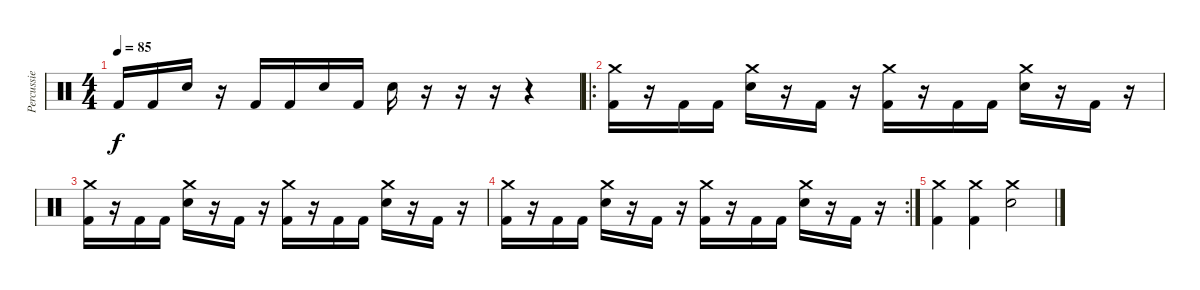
\track ("Percussie" "Percussie") {instrument percussion}
\staff {score}
\articulation defaults
\ts (4 4)
\tempo 85
\clef neutral
\ks c "Kick (hit) 2".16{dy f} "Kick (hit) 2".16 "Snare (hit) 2".16
r.16 "Kick (hit) 2".16 "Kick (hit) 2".16 "Snare (hit) 2".16 "Kick (hit) 2".16 "Snare (hit) 2".16 r.16 r.16 r.16 r.4 |
\ro
("Kick (hit) 2" "Crash medium (hit)").16 r.16 "Kick (hit) 2".16 "Kick (hit) 2".16 ("Snare (hit) 2" "Crash medium (hit)").16 r.16 "Kick (hit) 2".16 r.16 ("Kick (hit) 2" "Crash medium (hit)").16 r.16 "Kick (hit) 2".16 "Kick (hit) 2".16 ("Snare (hit) 2" "Crash medium (hit)").16 r.16 "Kick (hit) 2".16 r.16 |
("Kick (hit) 2" "Crash medium (hit)").16 r.16 "Kick (hit) 2".16 "Kick (hit) 2".16 ("Snare (hit) 2" "Crash medium (hit)").16 r.16 "Kick (hit) 2".16 r.16 ("Kick (hit) 2" "Crash medium (hit)").16 r.16 "Kick (hit) 2".16 "Kick (hit) 2".16 ("Snare (hit) 2" "Crash medium (hit)").16 r.16 "Kick (hit) 2".16 r.16 |
\rc 2
("Kick (hit) 2" "Crash medium (hit)").16 r.16 "Kick (hit) 2".16 "Kick (hit) 2".16 ("Snare (hit) 2" "Crash medium (hit)").16 r.16 "Kick (hit) 2".16 r.16 ("Kick (hit) 2" "Crash medium (hit)").16 r.16 "Kick (hit) 2".16 "Kick (hit) 2".16 ("Snare (hit) 2" "Crash medium (hit)").16 r.16 "Kick (hit) 2".16 r.16 |
("Kick (hit) 2" "Crash medium (hit)").4 ("Kick (hit) 2" "Crash medium (hit)").4 ("Snare (hit) 2" "Crash medium (hit)").2
